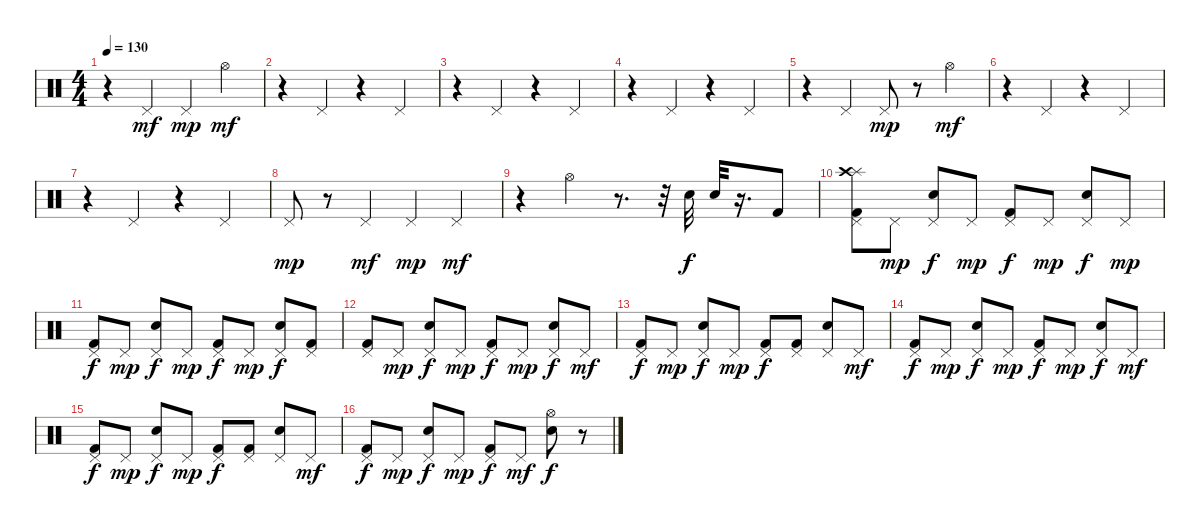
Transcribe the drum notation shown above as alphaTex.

\track "" {instrument percussion}
\staff {score}
\articulation defaults
\ts (4 4)
\tempo 130
\clef neutral
\ks c
r.4{dy mf} "Pedal Hi-Hat (hit)".4 "Pedal Hi-Hat (hit)".4{dy mp} "Hi-Hat (open)".4{dy mf} |
r.4 "Pedal Hi-Hat (hit)".4 r.4 "Pedal Hi-Hat (hit)".4 |
r.4 "Pedal Hi-Hat (hit)".4 r.4 "Pedal Hi-Hat (hit)".4 |
r.4 "Pedal Hi-Hat (hit)".4 r.4 "Pedal Hi-Hat (hit)".4 |
r.4 "Pedal Hi-Hat (hit)".4 "Pedal Hi-Hat (hit)".8{dy mp} r.8 "Hi-Hat (open)".4{dy mf} |
r.4 "Pedal Hi-Hat (hit)".4 r.4 "Pedal Hi-Hat (hit)".4 |
r.4 "Pedal Hi-Hat (hit)".4 r.4 "Pedal Hi-Hat (hit)".4 |
"Pedal Hi-Hat (hit)".8{dy mp} r.8 "Pedal Hi-Hat (hit)".4{dy mf} "Pedal Hi-Hat (hit)".4{dy mp} "Pedal Hi-Hat (hit)".4{dy mf} |
r.4 "Hi-Hat (open)".4 r.8{d} r.32 "Electric Snare (hit)".32{dy f} "Electric Snare (hit)".32 r.16{d} "Kick (hit) 2".8 |
("Splash (hit)" "Crash high (hit)" "Pedal Hi-Hat (hit)" "Kick (hit) 2").8 "Pedal Hi-Hat (hit)".8{dy mp} ("Pedal Hi-Hat (hit)" "Snare (hit) 2").8{dy f} "Pedal Hi-Hat (hit)".8{dy mp} ("Pedal Hi-Hat (hit)" "Kick (hit) 2").8{dy f} "Pedal Hi-Hat (hit)".8{dy mp} ("Pedal Hi-Hat (hit)" "Snare (hit) 2").8{dy f} "Pedal Hi-Hat (hit)".8{dy mp} |
("Pedal Hi-Hat (hit)" "Kick (hit) 2").8{dy f} "Pedal Hi-Hat (hit)".8{dy mp} ("Pedal Hi-Hat (hit)" "Snare (hit) 2").8{dy f} "Pedal Hi-Hat (hit)".8{dy mp} ("Pedal Hi-Hat (hit)" "Kick (hit) 2").8{dy f} "Pedal Hi-Hat (hit)".8{dy mp} ("Pedal Hi-Hat (hit)" "Snare (hit) 2").8{dy f} ("Pedal Hi-Hat (hit)" "Kick (hit) 2").8 |
("Pedal Hi-Hat (hit)" "Kick (hit) 2").8 "Pedal Hi-Hat (hit)".8{dy mp} ("Pedal Hi-Hat (hit)" "Snare (hit) 2").8{dy f} "Pedal Hi-Hat (hit)".8{dy mp} ("Pedal Hi-Hat (hit)" "Kick (hit) 2").8{dy f} "Pedal Hi-Hat (hit)".8{dy mp} ("Pedal Hi-Hat (hit)" "Snare (hit) 2").8{dy f} "Pedal Hi-Hat (hit)".8{dy mf} |
("Pedal Hi-Hat (hit)" "Kick (hit) 2").8{dy f} "Pedal Hi-Hat (hit)".8{dy mp} ("Pedal Hi-Hat (hit)" "Snare (hit) 2").8{dy f} "Pedal Hi-Hat (hit)".8{dy mp} ("Pedal Hi-Hat (hit)" "Kick (hit) 2").8{dy f} ("Pedal Hi-Hat (hit)" "Kick (hit) 2").8 ("Pedal Hi-Hat (hit)" "Snare (hit) 2").8 "Pedal Hi-Hat (hit)".8{dy mf} |
("Pedal Hi-Hat (hit)" "Kick (hit) 2").8{dy f} "Pedal Hi-Hat (hit)".8{dy mp} ("Pedal Hi-Hat (hit)" "Snare (hit) 2").8{dy f} "Pedal Hi-Hat (hit)".8{dy mp} ("Pedal Hi-Hat (hit)" "Kick (hit) 2").8{dy f} "Pedal Hi-Hat (hit)".8{dy mp} ("Pedal Hi-Hat (hit)" "Snare (hit) 2").8{dy f} "Pedal Hi-Hat (hit)".8{dy mf} |
("Pedal Hi-Hat (hit)" "Kick (hit) 2").8{dy f} "Pedal Hi-Hat (hit)".8{dy mp} ("Pedal Hi-Hat (hit)" "Snare (hit) 2").8{dy f} "Pedal Hi-Hat (hit)".8{dy mp} ("Pedal Hi-Hat (hit)" "Kick (hit) 2").8{dy f} ("Pedal Hi-Hat (hit)" "Kick (hit) 2").8 ("Pedal Hi-Hat (hit)" "Snare (hit) 2").8 "Pedal Hi-Hat (hit)".8{dy mf} |
("Pedal Hi-Hat (hit)" "Kick (hit) 2").8{dy f} "Pedal Hi-Hat (hit)".8{dy mp} ("Pedal Hi-Hat (hit)" "Snare (hit) 2").8{dy f} "Pedal Hi-Hat (hit)".8{dy mp} ("Pedal Hi-Hat (hit)" "Kick (hit) 2").8{dy f} "Pedal Hi-Hat (hit)".8{dy mf} ("Hi-Hat (open)" "Snare (hit) 2").8{dy f} r.8
